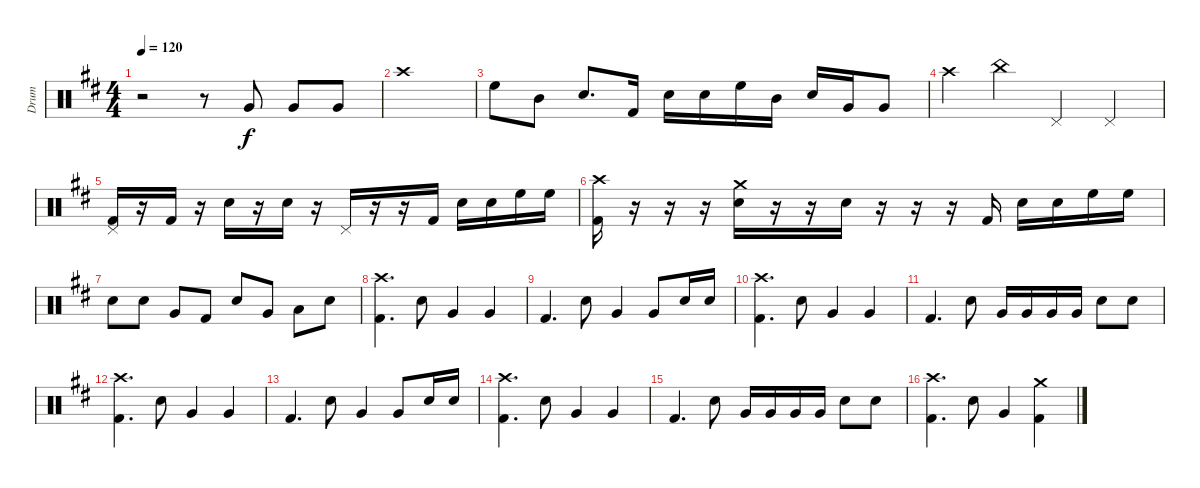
\track ("Drum" "Drum") {instrument percussion}
\staff {score}
\articulation defaults
\ts (4 4)
\tempo 120
\clef neutral
\ks d
r.2{dy f} r.8 "Very Low Tom (hit)".8 "Very Low Tom (hit)".8 "Very Low Tom (hit)".8 |
"Crash high (hit)".1 |
"High Floor Tom (hit)".8 "Mid Tom (hit)".8 "Electric Snare (hit)".8{d} "Kick (hit) 2".16 "Electric Snare (hit)".16 "Electric Snare (hit)".16 "High Floor Tom (hit)".16 "Mid Tom (hit)".16 "Electric Snare (hit)".16 "Very Low Tom (hit)".16 "Very Low Tom (hit)".8 |
"Crash high (hit)".4 "China (hit)".4 "Pedal Hi-Hat (hit)".4 "Pedal Hi-Hat (hit)".4 |
("Kick (hit) 2" "Pedal Hi-Hat (hit)").16 r.16 "Kick (hit) 2".16 r.16 "Electric Snare (hit)".16 r.16 "Electric Snare (hit)".16 r.16 "Pedal Hi-Hat (hit)".16 r.16 r.16 "Kick (hit) 2".16 "Electric Snare (hit)".16 "Electric Snare (hit)".16 "High Floor Tom (hit)".16 "High Floor Tom (hit)".16 |
("Kick (hit) 2" "Crash high (hit)").16 r.16 r.16 r.16 ("Electric Snare (hit)" "Crash medium (hit)").16 r.16 r.16 "Electric Snare (hit)".16 r.16 r.16 r.16 "Kick (hit) 2".16 "Electric Snare (hit)".16 "Electric Snare (hit)".16 "High Floor Tom (hit)".16 "High Floor Tom (hit)".16 |
"Electric Snare (hit)".8 "Electric Snare (hit)".8 "Very Low Tom (hit)".8 "Kick (hit) 2".8 "Electric Snare (hit)".8 "Very Low Tom (hit)".8 "Low Tom (hit)".8 "Electric Snare (hit)".8 |
("Kick (hit) 2" "Crash high (hit)").4{d} "Electric Snare (hit)".8 "Very Low Tom (hit)".4 "Very Low Tom (hit)".4 |
"Kick (hit) 2".4{d} "Electric Snare (hit)".8 "Very Low Tom (hit)".4 "Very Low Tom (hit)".8 "Electric Snare (hit)".16 "Electric Snare (hit)".16 |
("Kick (hit) 2" "Crash high (hit)").4{d} "Electric Snare (hit)".8 "Very Low Tom (hit)".4 "Very Low Tom (hit)".4 |
"Kick (hit) 2".4{d} "Electric Snare (hit)".8 "Very Low Tom (hit)".16 "Very Low Tom (hit)".16 "Very Low Tom (hit)".16 "Very Low Tom (hit)".16 "Electric Snare (hit)".8 "Electric Snare (hit)".8 |
("Kick (hit) 2" "Crash high (hit)").4{d} "Electric Snare (hit)".8 "Very Low Tom (hit)".4 "Very Low Tom (hit)".4 |
"Kick (hit) 2".4{d} "Electric Snare (hit)".8 "Very Low Tom (hit)".4 "Very Low Tom (hit)".8 "Electric Snare (hit)".16 "Electric Snare (hit)".16 |
("Kick (hit) 2" "Crash high (hit)").4{d} "Electric Snare (hit)".8 "Very Low Tom (hit)".4 "Very Low Tom (hit)".4 |
"Kick (hit) 2".4{d} "Electric Snare (hit)".8 "Very Low Tom (hit)".16 "Very Low Tom (hit)".16 "Very Low Tom (hit)".16 "Very Low Tom (hit)".16 "Electric Snare (hit)".8 "Electric Snare (hit)".8 |
("Kick (hit) 2" "Crash high (hit)").4{d} "Electric Snare (hit)".8 "Very Low Tom (hit)".4 ("Kick (hit) 2" "Crash medium (hit)").4
